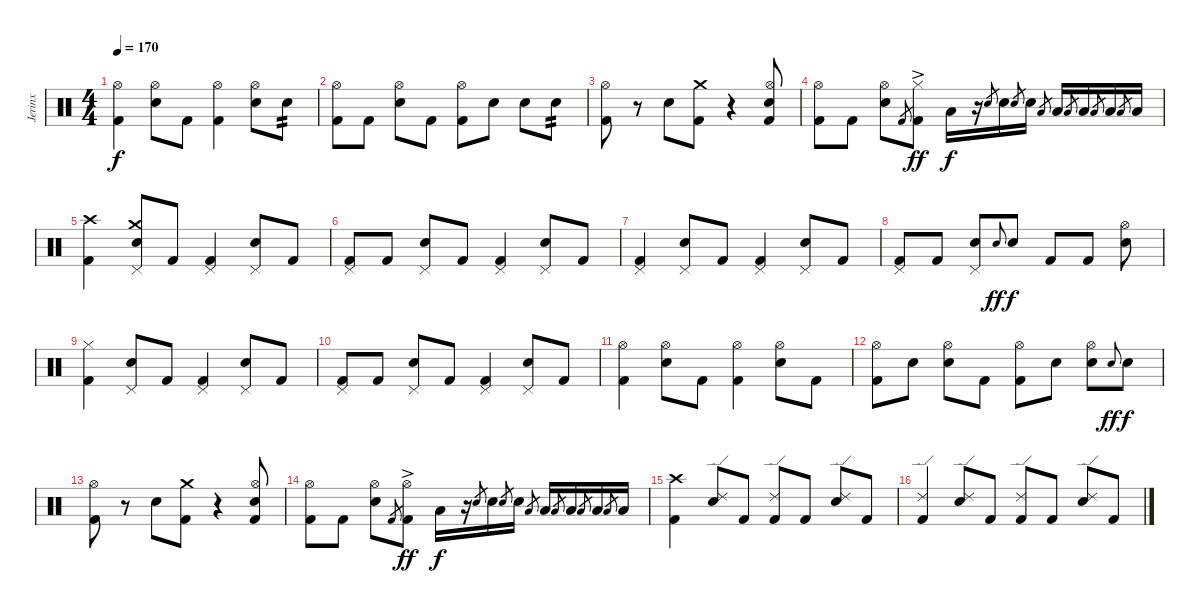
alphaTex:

\track ("Jerinx" "Jerinx") {instrument percussion}
\staff {score}
\articulation defaults
\ts (4 4)
\tempo 170
\clef neutral
\ks c
("Kick (hit) 2" "Hi-Hat (open)").4{dy f} ("Electric Snare (hit)" "Hi-Hat (open)").8 "Kick (hit) 2".8 ("Kick (hit) 2" "Hi-Hat (open)").4 ("Electric Snare (hit)" "Hi-Hat (open)").8 "Electric Snare (hit)".8{tp 2} |
("Kick (hit) 2" "Hi-Hat (open)").8 "Kick (hit) 2".8 ("Electric Snare (hit)" "Hi-Hat (open)").8 "Kick (hit) 2".8 ("Kick (hit) 2" "Hi-Hat (open)").8 "Electric Snare (hit)".8 "Electric Snare (hit)".8 "Electric Snare (hit)".8{tp 2} |
("Kick (hit) 2" "Hi-Hat (open)").8 r.8 "Electric Snare (hit)".8 ("Kick (hit) 2" "Crash medium (hit)").8 r.4 ("Kick (hit) 2" "Electric Snare (hit)" "Hi-Hat (open)").8 |
("Kick (hit) 2" "Hi-Hat (open)").8 "Kick (hit) 2".8 ("Electric Snare (hit)" "Hi-Hat (open)").8 "Kick (hit) 2".8{gr} ("Kick (hit) 2"{ac} "Hi-Hat (closed)").8{dy ff} "Low Tom (hit)".16{dy f} r.16 "Electric Snare (hit)".8{gr} "Electric Snare (hit)".16 "Electric Snare (hit)".8{gr} "Electric Snare (hit)".16 "Low Tom (hit)".8{gr} "Low Tom (hit)".16 "Low Tom (hit)".8{gr} "Low Tom (hit)".16 "Low Floor Tom (hit)".8{gr} "Low Floor Tom (hit)".16 "Low Floor Tom (hit)".8{gr} "Low Floor Tom (hit)".16 |
("Kick (hit) 2" "Crash high (hit)").4 ("Electric Snare (hit)" "Pedal Hi-Hat (hit)" "Crash medium (hit)").8 "Kick (hit) 2".8 ("Kick (hit) 2" "Pedal Hi-Hat (hit)").4 ("Electric Snare (hit)" "Pedal Hi-Hat (hit)").8 "Kick (hit) 2".8 |
("Kick (hit) 2" "Pedal Hi-Hat (hit)").8 "Kick (hit) 2".8 ("Electric Snare (hit)" "Pedal Hi-Hat (hit)").8 "Kick (hit) 2".8 ("Kick (hit) 2" "Pedal Hi-Hat (hit)").4 ("Electric Snare (hit)" "Pedal Hi-Hat (hit)").8 "Kick (hit) 2".8 |
("Kick (hit) 2" "Pedal Hi-Hat (hit)").4 ("Electric Snare (hit)" "Pedal Hi-Hat (hit)").8 "Kick (hit) 2".8 ("Kick (hit) 2" "Pedal Hi-Hat (hit)").4 ("Electric Snare (hit)" "Pedal Hi-Hat (hit)").8 "Kick (hit) 2".8 |
("Kick (hit) 2" "Pedal Hi-Hat (hit)").8 "Kick (hit) 2".8 ("Electric Snare (hit)" "Pedal Hi-Hat (hit)").8 "Electric Snare (hit)".8{gr onbeat dy ff} "Electric Snare (hit)".8{dy f} "Kick (hit) 2".8 "Kick (hit) 2".8 ("Electric Snare (hit)" "Hi-Hat (open)").8 |
("Kick (hit) 2" "Hi-Hat (closed)").4 ("Electric Snare (hit)" "Pedal Hi-Hat (hit)").8 "Kick (hit) 2".8 ("Kick (hit) 2" "Pedal Hi-Hat (hit)").4 ("Electric Snare (hit)" "Pedal Hi-Hat (hit)").8 "Kick (hit) 2".8 |
("Kick (hit) 2" "Pedal Hi-Hat (hit)").8 "Kick (hit) 2".8 ("Electric Snare (hit)" "Pedal Hi-Hat (hit)").8 "Kick (hit) 2".8 ("Kick (hit) 2" "Pedal Hi-Hat (hit)").4 ("Electric Snare (hit)" "Pedal Hi-Hat (hit)").8 "Kick (hit) 2".8 |
("Kick (hit) 2" "Hi-Hat (open)").4 ("Electric Snare (hit)" "Hi-Hat (open)").8 "Kick (hit) 2".8 ("Kick (hit) 2" "Hi-Hat (open)").4 ("Electric Snare (hit)" "Hi-Hat (open)").8 "Kick (hit) 2".8 |
("Kick (hit) 2" "Hi-Hat (open)").8 "Electric Snare (hit)".8 ("Electric Snare (hit)" "Hi-Hat (open)").8 "Kick (hit) 2".8 ("Kick (hit) 2" "Hi-Hat (open)").8 "Electric Snare (hit)".8 ("Electric Snare (hit)" "Hi-Hat (open)").8 "Electric Snare (hit)"{h}.8{gr onbeat dy ff} "Electric Snare (hit)".8{dy f} |
("Kick (hit) 2" "Hi-Hat (open)").8 r.8 "Electric Snare (hit)".8 ("Kick (hit) 2" "Crash medium (hit)").8 r.4 ("Kick (hit) 2" "Electric Snare (hit)" "Hi-Hat (open)").8 |
("Kick (hit) 2" "Hi-Hat (open)").8 "Kick (hit) 2".8 ("Electric Snare (hit)" "Hi-Hat (open)").8 "Kick (hit) 2".8{gr} ("Kick (hit) 2"{ac} "Hi-Hat (open)").8{dy ff} "Low Tom (hit)".16{dy f} r.16 "Electric Snare (hit)".8{gr} "Electric Snare (hit)".16 "Electric Snare (hit)".8{gr} "Electric Snare (hit)".16 "Low Tom (hit)".8{gr} "Low Tom (hit)".16 "Low Tom (hit)".8{gr} "Low Tom (hit)".16 "Low Floor Tom (hit)".8{gr} "Low Floor Tom (hit)".16 "Low Floor Tom (hit)".8{gr} "Low Floor Tom (hit)".16 |
("Kick (hit) 2" "Crash high (hit)").4 ("Electric Snare (hit)" "Ride (edge) 2").8 "Kick (hit) 2".8 ("Kick (hit) 2" "Ride (edge) 2").8 "Kick (hit) 2".8 ("Electric Snare (hit)" "Ride (edge) 2").8 "Kick (hit) 2".8 |
("Kick (hit) 2" "Ride (edge) 2").4 ("Electric Snare (hit)" "Ride (edge) 2").8 "Kick (hit) 2".8 ("Kick (hit) 2" "Ride (edge) 2").8 "Kick (hit) 2".8 ("Electric Snare (hit)" "Ride (edge) 2").8 "Kick (hit) 2".8
